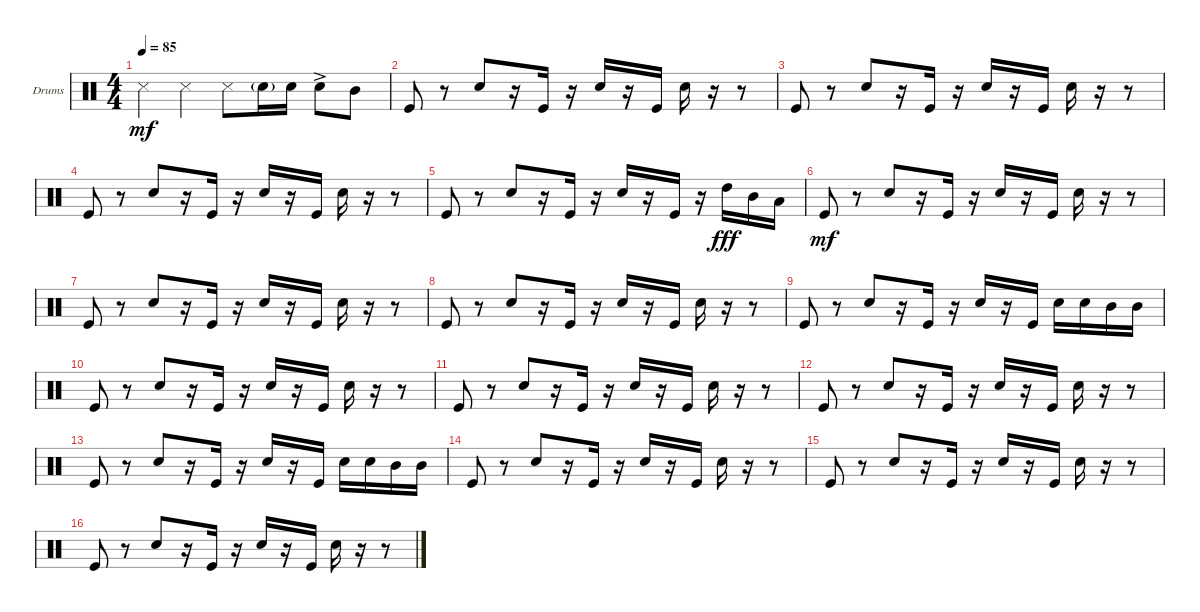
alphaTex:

\defaultSystemsLayout 4
\bracketExtendMode groupsimilarinstruments
\firstSystemTrackNameOrientation horizontal
\otherSystemsTrackNameOrientation horizontal
\track ("Drumkit" "Drums") {instrument percussion}
\staff {score}
\articulation defaults
\ts (4 4)
\ac
\tempo 85
\clef neutral
\scale
0.448889
\ks c "Snare (side stick) 3".4{dy mf} "Snare (side stick) 3".4 "Snare (side stick) 3".8 "Snare (hit) 2"{g}.16 "Snare (hit) 2".16 "Snare (hit) 2"{ac}.8 "Mid Tom (hit)".8
|
\scale
0.302222 "Kick (hit)".8 r.8 "Snare (hit) 2".8 r.16 "Kick (hit)".16 r.16 "Snare (hit) 2".16 r.16 "Kick (hit)".16 "Snare (hit) 2".16 r.16 r.8 |
\scale
0.248889 "Kick (hit)".8 r.8 "Snare (hit) 2".8 r.16 "Kick (hit)".16 r.16 "Snare (hit) 2".16 r.16 "Kick (hit)".16 "Snare (hit) 2".16 r.16 r.8 |
"Kick (hit)".8 r.8 "Snare (hit) 2".8 r.16 "Kick (hit)".16 r.16 "Snare (hit) 2".16 r.16 "Kick (hit)".16 "Snare (hit) 2".16 r.16 r.8 |
"Kick (hit)".8 r.8 "Snare (hit) 2".8 r.16 "Kick (hit)".16 r.16 "Snare (hit) 2".16 r.16 "Kick (hit)".16 r.16 "High Tom (hit)".16{dy fff} "Mid Tom (hit)".16 "Low Tom (hit)".16 |
"Kick (hit)".8{dy mf} r.8 "Snare (hit) 2".8 r.16 "Kick (hit)".16 r.16 "Snare (hit) 2".16 r.16 "Kick (hit)".16 "Snare (hit) 2".16 r.16 r.8 |
"Kick (hit)".8 r.8 "Snare (hit) 2".8 r.16 "Kick (hit)".16 r.16 "Snare (hit) 2".16 r.16 "Kick (hit)".16 "Snare (hit) 2".16 r.16 r.8 |
"Kick (hit)".8 r.8 "Snare (hit) 2".8 r.16 "Kick (hit)".16 r.16 "Snare (hit) 2".16 r.16 "Kick (hit)".16 "Snare (hit) 2".16 r.16 r.8 |
"Kick (hit)".8 r.8 "Snare (hit) 2".8 r.16 "Kick (hit)".16 r.16 "Snare (hit) 2".16 r.16 "Kick (hit)".16 "Snare (hit) 2".16 "Snare (hit) 2".16 "Mid Tom (hit)".16 "Mid Tom (hit)".16 |
"Kick (hit)".8 r.8 "Snare (hit) 2".8 r.16 "Kick (hit)".16 r.16 "Snare (hit) 2".16 r.16 "Kick (hit)".16 "Snare (hit) 2".16 r.16 r.8 |
"Kick (hit)".8 r.8 "Snare (hit) 2".8 r.16 "Kick (hit)".16 r.16 "Snare (hit) 2".16 r.16 "Kick (hit)".16 "Snare (hit) 2".16 r.16 r.8 |
"Kick (hit)".8 r.8 "Snare (hit) 2".8 r.16 "Kick (hit)".16 r.16 "Snare (hit) 2".16 r.16 "Kick (hit)".16 "Snare (hit) 2".16 r.16 r.8 |
"Kick (hit)".8 r.8 "Snare (hit) 2".8 r.16 "Kick (hit)".16 r.16 "Snare (hit) 2".16 r.16 "Kick (hit)".16 "Snare (hit) 2".16 "Snare (hit) 2".16 "Mid Tom (hit)".16 "Mid Tom (hit)".16 |
"Kick (hit)".8 r.8 "Snare (hit) 2".8 r.16 "Kick (hit)".16 r.16 "Snare (hit) 2".16 r.16 "Kick (hit)".16 "Snare (hit) 2".16 r.16 r.8 |
"Kick (hit)".8 r.8 "Snare (hit) 2".8 r.16 "Kick (hit)".16 r.16 "Snare (hit) 2".16 r.16 "Kick (hit)".16 "Snare (hit) 2".16 r.16 r.8 |
"Kick (hit)".8 r.8 "Snare (hit) 2".8 r.16 "Kick (hit)".16 r.16 "Snare (hit) 2".16 r.16 "Kick (hit)".16 "Snare (hit) 2".16 r.16 r.8
